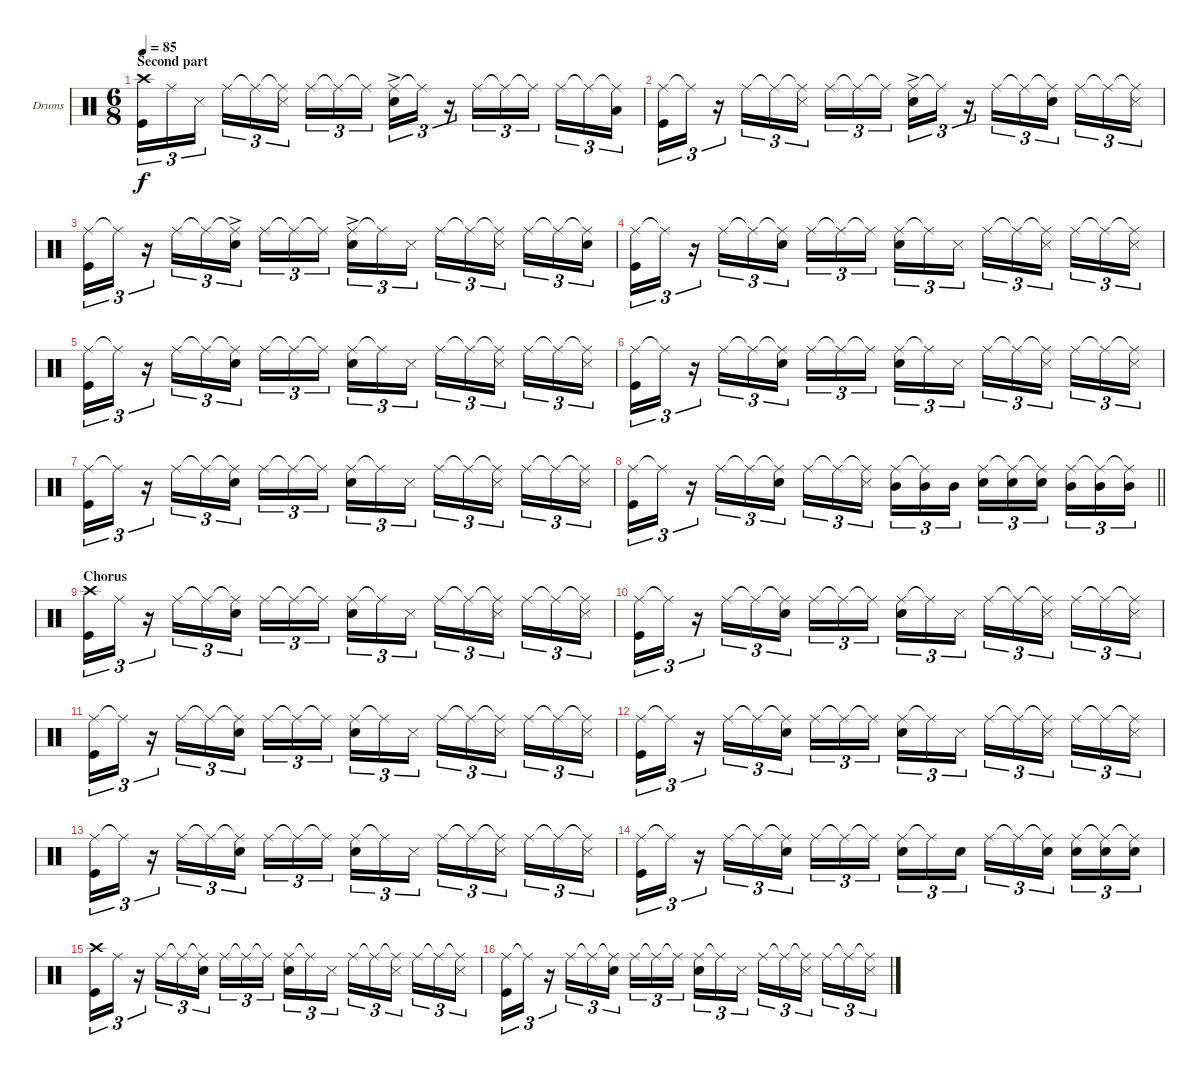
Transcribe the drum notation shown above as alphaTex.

\bracketExtendMode groupsimilarinstruments
\firstSystemTrackNameOrientation horizontal
\otherSystemsTrackNameOrientation horizontal
\track ("Drumkit" "Drums") {instrument percussion}
\staff {score}
\articulation defaults
\ts (6 8)
\section ("" "Second part")
\tempo 85
\clef neutral
\ks c
("Crash high (hit)" "Kick (hit)").16{tu (3 2) dy f} "Ride (middle)".16{tu (3 2)} "Snare (side stick) 3".16{tu (3 2)} "Ride (middle)".16{tu (3 2)} "Ride (middle)"{t}.16{tu (3 2)} ("Ride (middle)"{t} "Snare (side stick) 3").16{tu (3 2)} "Ride (middle)".16{tu (3 2)} "Ride (middle)"{t}.16{tu (3 2)} "Ride (middle)"{t}.16{tu (3 2)} ("Ride (middle)" "Snare (hit) 2"{ac}).16{tu (3 2)} "Ride (middle)"{t}.16{tu (3 2)} r.16{tu (3 2)} "Ride (middle)".16{tu (3 2)} "Ride (middle)"{t}.16{tu (3 2)} "Ride (middle)"{t}.16{tu (3 2)} "Ride (middle)".16{tu (3 2)} "Ride (middle)"{t}.16{tu (3 2)} ("Ride (middle)"{t} "Low Tom (hit)").16{tu (3 2)} |
("Ride (middle)" "Kick (hit)").16{tu (3 2)} "Ride (middle)"{t}.16{tu (3 2)} r.16{tu (3 2)} "Ride (middle)".16{tu (3 2)} "Ride (middle)"{t}.16{tu (3 2)} ("Ride (middle)"{t} "Snare (side stick) 3").16{tu (3 2)} "Ride (middle)".16{tu (3 2)} "Ride (middle)"{t}.16{tu (3 2)} "Ride (middle)"{t}.16{tu (3 2)} ("Ride (middle)" "Snare (hit) 2"{ac}).16{tu (3 2)} "Ride (middle)"{t}.16{tu (3 2)} r.16{tu (3 2)} "Ride (middle)".16{tu (3 2)} "Ride (middle)"{t}.16{tu (3 2)} ("Ride (middle)"{t} "Snare (hit) 2").16{tu (3 2)} "Ride (middle)".16{tu (3 2)} "Ride (middle)"{t}.16{tu (3 2)} ("Ride (middle)"{t} "Snare (side stick) 3").16{tu (3 2)} |
("Ride (middle)" "Kick (hit)").16{tu (3 2)} "Ride (middle)"{t}.16{tu (3 2)} r.16{tu (3 2)} "Ride (middle)".16{tu (3 2)} "Ride (middle)"{t}.16{tu (3 2)} ("Ride (middle)"{t} "Snare (hit) 2"{ac}).16{tu (3 2)} "Ride (middle)".16{tu (3 2)} "Ride (middle)"{t}.16{tu (3 2)} "Ride (middle)"{t}.16{tu (3 2)} ("Ride (middle)" "Snare (hit) 2"{ac}).16{tu (3 2)} "Ride (middle)"{t}.16{tu (3 2)} "Snare (side stick) 3".16{tu (3 2)} "Ride (middle)".16{tu (3 2)} "Ride (middle)"{t}.16{tu (3 2)} ("Ride (middle)"{t} "Snare (side stick) 3").16{tu (3 2)} "Ride (middle)".16{tu (3 2)} "Ride (middle)"{t}.16{tu (3 2)} ("Ride (middle)"{t} "Snare (hit) 2").16{tu (3 2)} |
("Ride (middle)" "Kick (hit)").16{tu (3 2)} "Ride (middle)"{t}.16{tu (3 2)} r.16{tu (3 2)} "Ride (middle)".16{tu (3 2)} "Ride (middle)"{t}.16{tu (3 2)} ("Ride (middle)"{t} "Snare (hit) 2").16{tu (3 2)} "Ride (middle)".16{tu (3 2)} "Ride (middle)"{t}.16{tu (3 2)} "Ride (middle)"{t}.16{tu (3 2)} ("Ride (middle)" "Snare (hit) 2").16{tu (3 2)} "Ride (middle)"{t}.16{tu (3 2)} "Snare (side stick) 3".16{tu (3 2)} "Ride (middle)".16{tu (3 2)} "Ride (middle)"{t}.16{tu (3 2)} ("Ride (middle)"{t} "Snare (side stick) 3").16{tu (3 2)} "Ride (middle)".16{tu (3 2)} "Ride (middle)"{t}.16{tu (3 2)} ("Ride (middle)"{t} "Snare (side stick) 3").16{tu (3 2)} |
("Ride (middle)" "Kick (hit)").16{tu (3 2)} "Ride (middle)"{t}.16{tu (3 2)} r.16{tu (3 2)} "Ride (middle)".16{tu (3 2)} "Ride (middle)"{t}.16{tu (3 2)} ("Ride (middle)"{t} "Snare (hit) 2").16{tu (3 2)} "Ride (middle)".16{tu (3 2)} "Ride (middle)"{t}.16{tu (3 2)} "Ride (middle)"{t}.16{tu (3 2)} ("Ride (middle)" "Snare (hit) 2").16{tu (3 2)} "Ride (middle)"{t}.16{tu (3 2)} "Snare (side stick) 3".16{tu (3 2)} "Ride (middle)".16{tu (3 2)} "Ride (middle)"{t}.16{tu (3 2)} ("Ride (middle)"{t} "Snare (side stick) 3").16{tu (3 2)} "Ride (middle)".16{tu (3 2)} "Ride (middle)"{t}.16{tu (3 2)} ("Ride (middle)"{t} "Snare (side stick) 3").16{tu (3 2)} |
("Ride (middle)" "Kick (hit)").16{tu (3 2)} "Ride (middle)"{t}.16{tu (3 2)} r.16{tu (3 2)} "Ride (middle)".16{tu (3 2)} "Ride (middle)"{t}.16{tu (3 2)} ("Ride (middle)"{t} "Snare (hit) 2").16{tu (3 2)} "Ride (middle)".16{tu (3 2)} "Ride (middle)"{t}.16{tu (3 2)} "Ride (middle)"{t}.16{tu (3 2)} ("Ride (middle)" "Snare (hit) 2").16{tu (3 2)} "Ride (middle)"{t}.16{tu (3 2)} "Snare (side stick) 3".16{tu (3 2)} "Ride (middle)".16{tu (3 2)} "Ride (middle)"{t}.16{tu (3 2)} ("Ride (middle)"{t} "Snare (side stick) 3").16{tu (3 2)} "Ride (middle)".16{tu (3 2)} "Ride (middle)"{t}.16{tu (3 2)} ("Ride (middle)"{t} "Snare (side stick) 3").16{tu (3 2)} |
("Ride (middle)" "Kick (hit)").16{tu (3 2)} "Ride (middle)"{t}.16{tu (3 2)} r.16{tu (3 2)} "Ride (middle)".16{tu (3 2)} "Ride (middle)"{t}.16{tu (3 2)} ("Ride (middle)"{t} "Snare (hit) 2").16{tu (3 2)} "Ride (middle)".16{tu (3 2)} "Ride (middle)"{t}.16{tu (3 2)} "Ride (middle)"{t}.16{tu (3 2)} ("Ride (middle)" "Snare (hit) 2").16{tu (3 2)} "Ride (middle)"{t}.16{tu (3 2)} "Snare (side stick) 3".16{tu (3 2)} "Ride (middle)".16{tu (3 2)} "Ride (middle)"{t}.16{tu (3 2)} ("Ride (middle)"{t} "Snare (side stick) 3").16{tu (3 2)} "Ride (middle)".16{tu (3 2)} "Ride (middle)"{t}.16{tu (3 2)} ("Ride (middle)"{t} "Snare (side stick) 3").16{tu (3 2)} |
\barLineRight lightlight
("Ride (middle)" "Kick (hit)").16{tu (3 2)} "Ride (middle)"{t}.16{tu (3 2)} r.16{tu (3 2)} "Ride (middle)".16{tu (3 2)} "Ride (middle)"{t}.16{tu (3 2)} ("Ride (middle)"{t} "Snare (hit) 2").16{tu (3 2)} "Ride (middle)".16{tu (3 2)} "Ride (middle)"{t}.16{tu (3 2)} ("Ride (middle)"{t} "Snare (side stick) 3").16{tu (3 2)} ("Ride (middle)" "Mid Tom (hit)").16{tu (3 2)} ("Ride (middle)"{t} "Mid Tom (hit)").16{tu (3 2)} "Mid Tom (hit)".16{tu (3 2)} ("Ride (middle)" "Snare (hit) 2").16{tu (3 2)} ("Ride (middle)"{t} "Snare (hit) 2").16{tu (3 2)} ("Ride (middle)"{t} "Snare (hit) 2").16{tu (3 2)} ("Ride (middle)" "Mid Tom (hit)").16{tu (3 2)} ("Ride (middle)"{t} "Mid Tom (hit)").16{tu (3 2)} ("Ride (middle)"{t} "Mid Tom (hit)").16{tu (3 2)} |
\section ("" "Chorus")
("Crash high (hit)" "Kick (hit)").16{tu (3 2)} "Ride (middle)".16{tu (3 2)} r.16{tu (3 2)} "Ride (middle)".16{tu (3 2)} "Ride (middle)"{t}.16{tu (3 2)} ("Ride (middle)"{t} "Snare (hit) 2").16{tu (3 2)} "Ride (middle)".16{tu (3 2)} "Ride (middle)"{t}.16{tu (3 2)} "Ride (middle)"{t}.16{tu (3 2)} ("Ride (middle)" "Snare (hit) 2").16{tu (3 2)} "Ride (middle)"{t}.16{tu (3 2)} "Snare (side stick) 3".16{tu (3 2)} "Ride (middle)".16{tu (3 2)} "Ride (middle)"{t}.16{tu (3 2)} ("Ride (middle)"{t} "Snare (side stick) 3").16{tu (3 2)} "Ride (middle)".16{tu (3 2)} "Ride (middle)"{t}.16{tu (3 2)} ("Ride (middle)"{t} "Snare (side stick) 3").16{tu (3 2)} |
("Ride (middle)" "Kick (hit)").16{tu (3 2)} "Ride (middle)"{t}.16{tu (3 2)} r.16{tu (3 2)} "Ride (middle)".16{tu (3 2)} "Ride (middle)"{t}.16{tu (3 2)} ("Ride (middle)"{t} "Snare (hit) 2").16{tu (3 2)} "Ride (middle)".16{tu (3 2)} "Ride (middle)"{t}.16{tu (3 2)} "Ride (middle)"{t}.16{tu (3 2)} ("Ride (middle)" "Snare (hit) 2").16{tu (3 2)} "Ride (middle)"{t}.16{tu (3 2)} "Snare (side stick) 3".16{tu (3 2)} "Ride (middle)".16{tu (3 2)} "Ride (middle)"{t}.16{tu (3 2)} ("Ride (middle)"{t} "Snare (side stick) 3").16{tu (3 2)} "Ride (middle)".16{tu (3 2)} "Ride (middle)"{t}.16{tu (3 2)} ("Ride (middle)"{t} "Snare (side stick) 3").16{tu (3 2)} |
("Ride (middle)" "Kick (hit)").16{tu (3 2)} "Ride (middle)"{t}.16{tu (3 2)} r.16{tu (3 2)} "Ride (middle)".16{tu (3 2)} "Ride (middle)"{t}.16{tu (3 2)} ("Ride (middle)"{t} "Snare (hit) 2").16{tu (3 2)} "Ride (middle)".16{tu (3 2)} "Ride (middle)"{t}.16{tu (3 2)} "Ride (middle)"{t}.16{tu (3 2)} ("Ride (middle)" "Snare (hit) 2").16{tu (3 2)} "Ride (middle)"{t}.16{tu (3 2)} "Snare (side stick) 3".16{tu (3 2)} "Ride (middle)".16{tu (3 2)} "Ride (middle)"{t}.16{tu (3 2)} ("Ride (middle)"{t} "Snare (side stick) 3").16{tu (3 2)} "Ride (middle)".16{tu (3 2)} "Ride (middle)"{t}.16{tu (3 2)} ("Ride (middle)"{t} "Snare (side stick) 3").16{tu (3 2)} |
("Ride (middle)" "Kick (hit)").16{tu (3 2)} "Ride (middle)"{t}.16{tu (3 2)} r.16{tu (3 2)} "Ride (middle)".16{tu (3 2)} "Ride (middle)"{t}.16{tu (3 2)} ("Ride (middle)"{t} "Snare (hit) 2").16{tu (3 2)} "Ride (middle)".16{tu (3 2)} "Ride (middle)"{t}.16{tu (3 2)} "Ride (middle)"{t}.16{tu (3 2)} ("Ride (middle)" "Snare (hit) 2").16{tu (3 2)} "Ride (middle)"{t}.16{tu (3 2)} "Snare (side stick) 3".16{tu (3 2)} "Ride (middle)".16{tu (3 2)} "Ride (middle)"{t}.16{tu (3 2)} ("Ride (middle)"{t} "Snare (side stick) 3").16{tu (3 2)} "Ride (middle)".16{tu (3 2)} "Ride (middle)"{t}.16{tu (3 2)} ("Ride (middle)"{t} "Snare (side stick) 3").16{tu (3 2)} |
("Ride (middle)" "Kick (hit)").16{tu (3 2)} "Ride (middle)"{t}.16{tu (3 2)} r.16{tu (3 2)} "Ride (middle)".16{tu (3 2)} "Ride (middle)"{t}.16{tu (3 2)} ("Ride (middle)"{t} "Snare (hit) 2").16{tu (3 2)} "Ride (middle)".16{tu (3 2)} "Ride (middle)"{t}.16{tu (3 2)} "Ride (middle)"{t}.16{tu (3 2)} ("Ride (middle)" "Snare (hit) 2").16{tu (3 2)} "Ride (middle)"{t}.16{tu (3 2)} "Snare (side stick) 3".16{tu (3 2)} "Ride (middle)".16{tu (3 2)} "Ride (middle)"{t}.16{tu (3 2)} ("Ride (middle)"{t} "Snare (side stick) 3").16{tu (3 2)} "Ride (middle)".16{tu (3 2)} "Ride (middle)"{t}.16{tu (3 2)} ("Ride (middle)"{t} "Snare (side stick) 3").16{tu (3 2)} |
("Ride (middle)" "Kick (hit)").16{tu (3 2)} "Ride (middle)"{t}.16{tu (3 2)} r.16{tu (3 2)} "Ride (middle)".16{tu (3 2)} "Ride (middle)"{t}.16{tu (3 2)} ("Ride (middle)"{t} "Snare (hit) 2").16{tu (3 2)} "Ride (middle)".16{tu (3 2)} "Ride (middle)"{t}.16{tu (3 2)} "Ride (middle)"{t}.16{tu (3 2)} ("Ride (middle)" "Snare (hit) 2").16{tu (3 2)} "Ride (middle)"{t}.16{tu (3 2)} "Snare (hit) 2".16{tu (3 2)} "Ride (middle)".16{tu (3 2)} "Ride (middle)"{t}.16{tu (3 2)} ("Ride (middle)"{t} "Snare (hit) 2").16{tu (3 2)} ("Ride (middle)" "Snare (hit) 2").16{tu (3 2)} ("Ride (middle)"{t} "Snare (hit) 2").16{tu (3 2)} ("Ride (middle)"{t} "Snare (hit) 2").16{tu (3 2)} |
("Crash high (hit)" "Kick (hit)").16{tu (3 2)} "Ride (middle)".16{tu (3 2)} r.16{tu (3 2)} "Ride (middle)".16{tu (3 2)} "Ride (middle)"{t}.16{tu (3 2)} ("Ride (middle)"{t} "Snare (hit) 2").16{tu (3 2)} "Ride (middle)".16{tu (3 2)} "Ride (middle)"{t}.16{tu (3 2)} "Ride (middle)"{t}.16{tu (3 2)} ("Ride (middle)" "Snare (hit) 2").16{tu (3 2)} "Ride (middle)"{t}.16{tu (3 2)} "Snare (side stick) 3".16{tu (3 2)} "Ride (middle)".16{tu (3 2)} "Ride (middle)"{t}.16{tu (3 2)} ("Ride (middle)"{t} "Snare (side stick) 3").16{tu (3 2)} "Ride (middle)".16{tu (3 2)} "Ride (middle)"{t}.16{tu (3 2)} ("Ride (middle)"{t} "Snare (side stick) 3").16{tu (3 2)} |
("Ride (middle)" "Kick (hit)").16{tu (3 2)} "Ride (middle)"{t}.16{tu (3 2)} r.16{tu (3 2)} "Ride (middle)".16{tu (3 2)} "Ride (middle)"{t}.16{tu (3 2)} ("Ride (middle)"{t} "Snare (hit) 2").16{tu (3 2)} "Ride (middle)".16{tu (3 2)} "Ride (middle)"{t}.16{tu (3 2)} "Ride (middle)"{t}.16{tu (3 2)} ("Ride (middle)" "Snare (hit) 2").16{tu (3 2)} "Ride (middle)"{t}.16{tu (3 2)} "Snare (side stick) 3".16{tu (3 2)} "Ride (middle)".16{tu (3 2)} "Ride (middle)"{t}.16{tu (3 2)} ("Ride (middle)"{t} "Snare (side stick) 3").16{tu (3 2)} "Ride (middle)".16{tu (3 2)} "Ride (middle)"{t}.16{tu (3 2)} ("Ride (middle)"{t} "Snare (side stick) 3").16{tu (3 2)}
